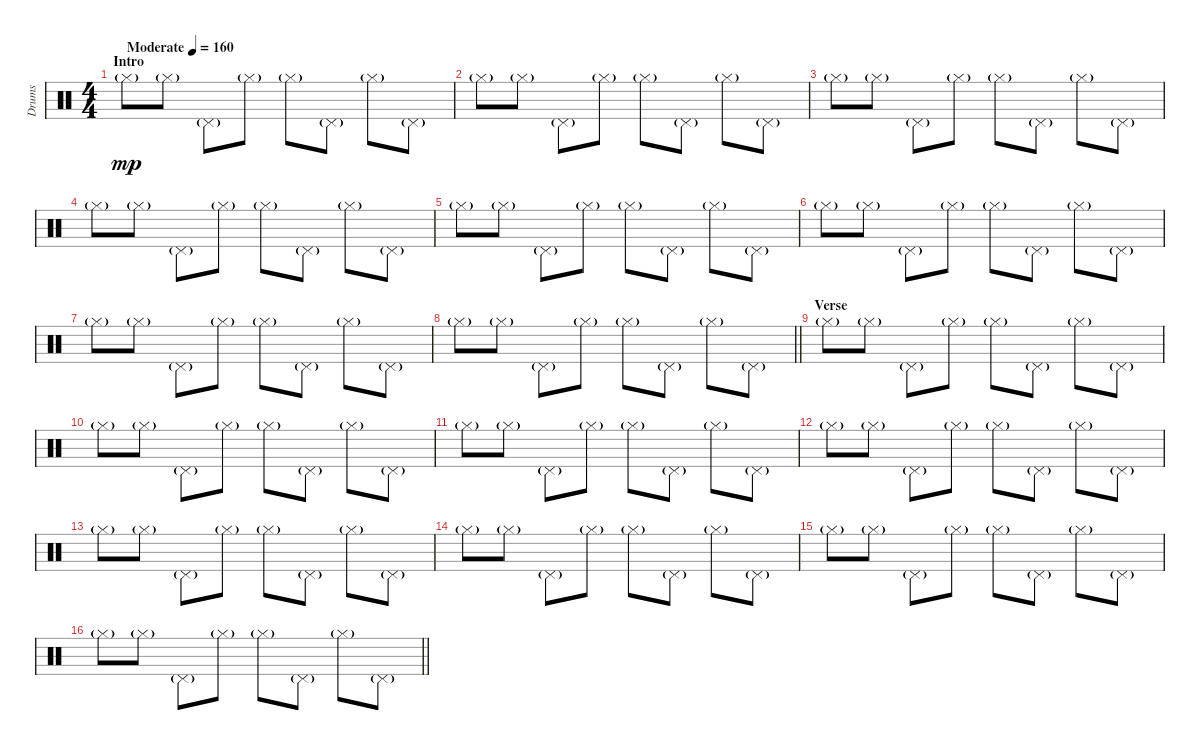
\track ("Drums" "Drums") {instrument percussion}
\staff {score}
\articulation defaults
\ts (4 4)
\section ("" "Intro")
\tempo (160 "Moderate")
\clef neutral
\ks c "Hi-Hat (closed)"{g}.8{dy mp} "Hi-Hat (closed)"{g}.8 "Pedal Hi-Hat (hit)"{g}.8 "Hi-Hat (closed)"{g}.8 "Hi-Hat (closed)"{g}.8 "Pedal Hi-Hat (hit)"{g}.8 "Hi-Hat (closed)"{g}.8 "Pedal Hi-Hat (hit)"{g}.8
|
"Hi-Hat (closed)"{g}.8 "Hi-Hat (closed)"{g}.8 "Pedal Hi-Hat (hit)"{g}.8 "Hi-Hat (closed)"{g}.8 "Hi-Hat (closed)"{g}.8 "Pedal Hi-Hat (hit)"{g}.8 "Hi-Hat (closed)"{g}.8 "Pedal Hi-Hat (hit)"{g}.8 |
"Hi-Hat (closed)"{g}.8 "Hi-Hat (closed)"{g}.8 "Pedal Hi-Hat (hit)"{g}.8 "Hi-Hat (closed)"{g}.8 "Hi-Hat (closed)"{g}.8 "Pedal Hi-Hat (hit)"{g}.8 "Hi-Hat (closed)"{g}.8 "Pedal Hi-Hat (hit)"{g}.8 |
"Hi-Hat (closed)"{g}.8 "Hi-Hat (closed)"{g}.8 "Pedal Hi-Hat (hit)"{g}.8 "Hi-Hat (closed)"{g}.8 "Hi-Hat (closed)"{g}.8 "Pedal Hi-Hat (hit)"{g}.8 "Hi-Hat (closed)"{g}.8 "Pedal Hi-Hat (hit)"{g}.8 |
"Hi-Hat (closed)"{g}.8 "Hi-Hat (closed)"{g}.8 "Pedal Hi-Hat (hit)"{g}.8 "Hi-Hat (closed)"{g}.8 "Hi-Hat (closed)"{g}.8 "Pedal Hi-Hat (hit)"{g}.8 "Hi-Hat (closed)"{g}.8 "Pedal Hi-Hat (hit)"{g}.8 |
"Hi-Hat (closed)"{g}.8 "Hi-Hat (closed)"{g}.8 "Pedal Hi-Hat (hit)"{g}.8 "Hi-Hat (closed)"{g}.8 "Hi-Hat (closed)"{g}.8 "Pedal Hi-Hat (hit)"{g}.8 "Hi-Hat (closed)"{g}.8 "Pedal Hi-Hat (hit)"{g}.8 |
"Hi-Hat (closed)"{g}.8 "Hi-Hat (closed)"{g}.8 "Pedal Hi-Hat (hit)"{g}.8 "Hi-Hat (closed)"{g}.8 "Hi-Hat (closed)"{g}.8 "Pedal Hi-Hat (hit)"{g}.8 "Hi-Hat (closed)"{g}.8 "Pedal Hi-Hat (hit)"{g}.8 |
\barLineRight lightlight "Hi-Hat (closed)"{g}.8 "Hi-Hat (closed)"{g}.8 "Pedal Hi-Hat (hit)"{g}.8 "Hi-Hat (closed)"{g}.8 "Hi-Hat (closed)"{g}.8 "Pedal Hi-Hat (hit)"{g}.8 "Hi-Hat (closed)"{g}.8 "Pedal Hi-Hat (hit)"{g}.8
|
\section ("" "Verse")
"Hi-Hat (closed)"{g}.8 "Hi-Hat (closed)"{g}.8 "Pedal Hi-Hat (hit)"{g}.8 "Hi-Hat (closed)"{g}.8 "Hi-Hat (closed)"{g}.8 "Pedal Hi-Hat (hit)"{g}.8 "Hi-Hat (closed)"{g}.8 "Pedal Hi-Hat (hit)"{g}.8 |
"Hi-Hat (closed)"{g}.8 "Hi-Hat (closed)"{g}.8 "Pedal Hi-Hat (hit)"{g}.8 "Hi-Hat (closed)"{g}.8 "Hi-Hat (closed)"{g}.8 "Pedal Hi-Hat (hit)"{g}.8 "Hi-Hat (closed)"{g}.8 "Pedal Hi-Hat (hit)"{g}.8 |
"Hi-Hat (closed)"{g}.8 "Hi-Hat (closed)"{g}.8 "Pedal Hi-Hat (hit)"{g}.8 "Hi-Hat (closed)"{g}.8 "Hi-Hat (closed)"{g}.8 "Pedal Hi-Hat (hit)"{g}.8 "Hi-Hat (closed)"{g}.8 "Pedal Hi-Hat (hit)"{g}.8 |
"Hi-Hat (closed)"{g}.8 "Hi-Hat (closed)"{g}.8 "Pedal Hi-Hat (hit)"{g}.8 "Hi-Hat (closed)"{g}.8 "Hi-Hat (closed)"{g}.8 "Pedal Hi-Hat (hit)"{g}.8 "Hi-Hat (closed)"{g}.8 "Pedal Hi-Hat (hit)"{g}.8 |
"Hi-Hat (closed)"{g}.8 "Hi-Hat (closed)"{g}.8 "Pedal Hi-Hat (hit)"{g}.8 "Hi-Hat (closed)"{g}.8 "Hi-Hat (closed)"{g}.8 "Pedal Hi-Hat (hit)"{g}.8 "Hi-Hat (closed)"{g}.8 "Pedal Hi-Hat (hit)"{g}.8 |
"Hi-Hat (closed)"{g}.8 "Hi-Hat (closed)"{g}.8 "Pedal Hi-Hat (hit)"{g}.8 "Hi-Hat (closed)"{g}.8 "Hi-Hat (closed)"{g}.8 "Pedal Hi-Hat (hit)"{g}.8 "Hi-Hat (closed)"{g}.8 "Pedal Hi-Hat (hit)"{g}.8 |
"Hi-Hat (closed)"{g}.8 "Hi-Hat (closed)"{g}.8 "Pedal Hi-Hat (hit)"{g}.8 "Hi-Hat (closed)"{g}.8 "Hi-Hat (closed)"{g}.8 "Pedal Hi-Hat (hit)"{g}.8 "Hi-Hat (closed)"{g}.8 "Pedal Hi-Hat (hit)"{g}.8 |
\barLineRight lightlight "Hi-Hat (closed)"{g}.8 "Hi-Hat (closed)"{g}.8 "Pedal Hi-Hat (hit)"{g}.8 "Hi-Hat (closed)"{g}.8 "Hi-Hat (closed)"{g}.8 "Pedal Hi-Hat (hit)"{g}.8 "Hi-Hat (closed)"{g}.8 "Pedal Hi-Hat (hit)"{g}.8
